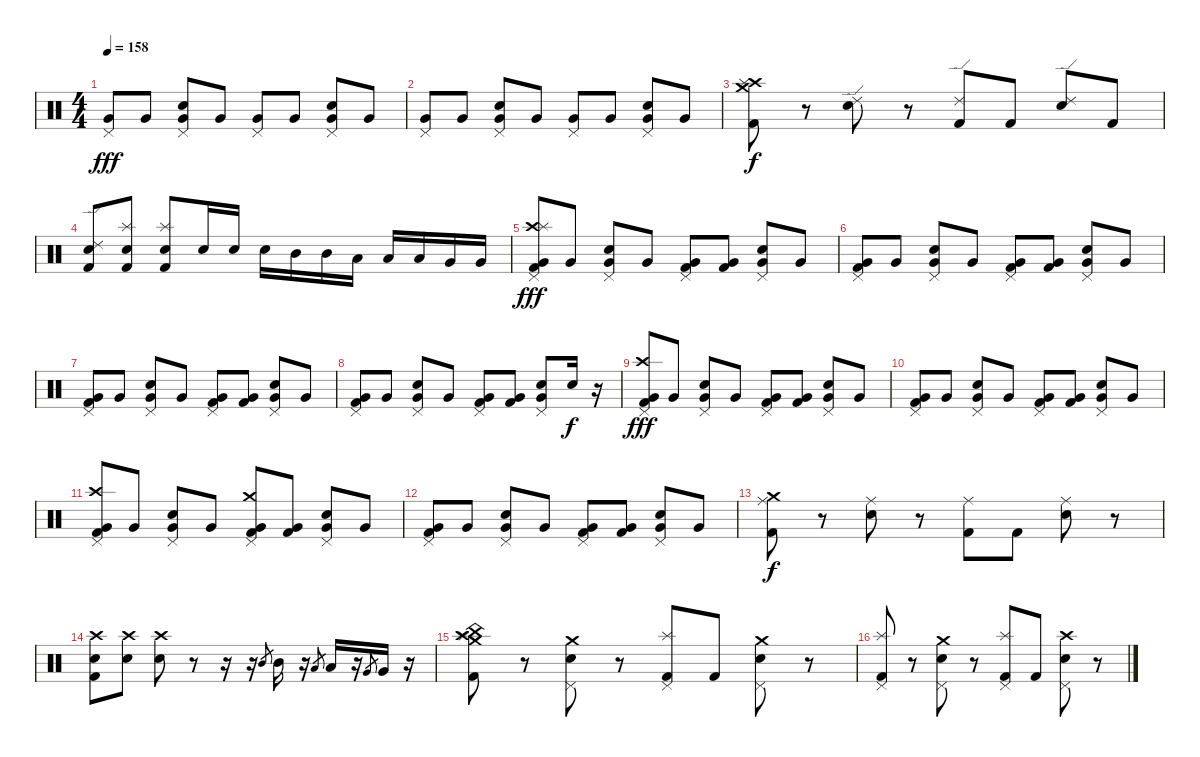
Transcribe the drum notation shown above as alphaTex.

\track "" {instrument percussion}
\staff {score}
\articulation defaults
\ts (4 4)
\tempo 158
\clef neutral
\ks c
("Pedal Hi-Hat (hit)" "Very Low Tom (hit)").8{dy fff} "Very Low Tom (hit)".8 ("Pedal Hi-Hat (hit)" "Electric Snare (hit)" "Very Low Tom (hit)").8 "Very Low Tom (hit)".8 ("Pedal Hi-Hat (hit)" "Very Low Tom (hit)").8 "Very Low Tom (hit)".8 ("Pedal Hi-Hat (hit)" "Electric Snare (hit)" "Very Low Tom (hit)").8 "Very Low Tom (hit)".8 |
("Pedal Hi-Hat (hit)" "Very Low Tom (hit)").8 "Very Low Tom (hit)".8 ("Pedal Hi-Hat (hit)" "Electric Snare (hit)" "Very Low Tom (hit)").8 "Very Low Tom (hit)".8 ("Pedal Hi-Hat (hit)" "Very Low Tom (hit)").8 "Very Low Tom (hit)".8 ("Pedal Hi-Hat (hit)" "Electric Snare (hit)" "Very Low Tom (hit)").8 "Very Low Tom (hit)".8 |
("Crash high (hit)" "Splash (hit)" "Crash medium (hit)" "Kick (hit) 2").8{dy f} r.8 ("Ride (edge) 2" "Electric Snare (hit)").8 r.8 ("Ride (edge) 2" "Kick (hit) 2").8 "Kick (hit) 2".8 ("Ride (edge) 2" "Electric Snare (hit)").8 "Kick (hit) 2".8 |
("Ride (edge) 2" "Electric Snare (hit)" "Kick (hit) 2").8 ("Splash (hit)" "Electric Snare (hit)" "Kick (hit) 2").8 ("Splash (hit)" "Electric Snare (hit)" "Kick (hit) 2").8 "Electric Snare (hit)".16 "Electric Snare (hit)".16 "Electric Snare (hit)".16 "Mid Tom (hit)".16 "Mid Tom (hit)".16 "Low Tom (hit)".16 "Low Tom (hit)".16 "Low Tom (hit)".16 "Very Low Tom (hit)".16 "Very Low Tom (hit)".16 |
("Crash high (hit)" "Pedal Hi-Hat (hit)" "Splash (hit)" "Kick (hit) 2" "Very Low Tom (hit)").8{dy fff} "Very Low Tom (hit)".8 ("Pedal Hi-Hat (hit)" "Electric Snare (hit)" "Very Low Tom (hit)").8 "Very Low Tom (hit)".8 ("Pedal Hi-Hat (hit)" "Kick (hit) 2" "Very Low Tom (hit)").8 ("Kick (hit) 2" "Very Low Tom (hit)").8 ("Pedal Hi-Hat (hit)" "Electric Snare (hit)" "Very Low Tom (hit)").8 "Very Low Tom (hit)".8 |
("Pedal Hi-Hat (hit)" "Kick (hit) 2" "Very Low Tom (hit)").8 "Very Low Tom (hit)".8 ("Pedal Hi-Hat (hit)" "Electric Snare (hit)" "Very Low Tom (hit)").8 "Very Low Tom (hit)".8 ("Pedal Hi-Hat (hit)" "Kick (hit) 2" "Very Low Tom (hit)").8 ("Kick (hit) 2" "Very Low Tom (hit)").8 ("Pedal Hi-Hat (hit)" "Electric Snare (hit)" "Very Low Tom (hit)").8 "Very Low Tom (hit)".8 |
("Pedal Hi-Hat (hit)" "Kick (hit) 2" "Very Low Tom (hit)").8 "Very Low Tom (hit)".8 ("Pedal Hi-Hat (hit)" "Electric Snare (hit)" "Very Low Tom (hit)").8 "Very Low Tom (hit)".8 ("Pedal Hi-Hat (hit)" "Kick (hit) 2" "Very Low Tom (hit)").8 ("Kick (hit) 2" "Very Low Tom (hit)").8 ("Pedal Hi-Hat (hit)" "Electric Snare (hit)" "Very Low Tom (hit)").8 "Very Low Tom (hit)".8 |
("Pedal Hi-Hat (hit)" "Kick (hit) 2" "Very Low Tom (hit)").8 "Very Low Tom (hit)".8 ("Pedal Hi-Hat (hit)" "Electric Snare (hit)" "Very Low Tom (hit)").8 "Very Low Tom (hit)".8 ("Pedal Hi-Hat (hit)" "Kick (hit) 2" "Very Low Tom (hit)").8 ("Kick (hit) 2" "Very Low Tom (hit)").8 ("Pedal Hi-Hat (hit)" "Electric Snare (hit)" "Very Low Tom (hit)").8 "Electric Snare (hit)".16{dy f} r.16 |
("Crash high (hit)" "Pedal Hi-Hat (hit)" "Kick (hit) 2" "Very Low Tom (hit)").8{dy fff} "Very Low Tom (hit)".8 ("Pedal Hi-Hat (hit)" "Electric Snare (hit)" "Very Low Tom (hit)").8 "Very Low Tom (hit)".8 ("Pedal Hi-Hat (hit)" "Kick (hit) 2" "Very Low Tom (hit)").8 ("Kick (hit) 2" "Very Low Tom (hit)").8 ("Pedal Hi-Hat (hit)" "Electric Snare (hit)" "Very Low Tom (hit)").8 "Very Low Tom (hit)".8 |
("Pedal Hi-Hat (hit)" "Kick (hit) 2" "Very Low Tom (hit)").8 "Very Low Tom (hit)".8 ("Pedal Hi-Hat (hit)" "Electric Snare (hit)" "Very Low Tom (hit)").8 "Very Low Tom (hit)".8 ("Pedal Hi-Hat (hit)" "Kick (hit) 2" "Very Low Tom (hit)").8 ("Kick (hit) 2" "Very Low Tom (hit)").8 ("Pedal Hi-Hat (hit)" "Electric Snare (hit)" "Very Low Tom (hit)").8 "Very Low Tom (hit)".8 |
("Crash high (hit)" "Pedal Hi-Hat (hit)" "Kick (hit) 2" "Very Low Tom (hit)").8 "Very Low Tom (hit)".8 ("Pedal Hi-Hat (hit)" "Electric Snare (hit)" "Very Low Tom (hit)").8 "Very Low Tom (hit)".8 ("Crash medium (hit)" "Pedal Hi-Hat (hit)" "Kick (hit) 2" "Very Low Tom (hit)").8 ("Kick (hit) 2" "Very Low Tom (hit)").8 ("Pedal Hi-Hat (hit)" "Electric Snare (hit)" "Very Low Tom (hit)").8 "Very Low Tom (hit)".8 |
("Pedal Hi-Hat (hit)" "Kick (hit) 2" "Very Low Tom (hit)").8 "Very Low Tom (hit)".8 ("Pedal Hi-Hat (hit)" "Electric Snare (hit)" "Very Low Tom (hit)").8 "Very Low Tom (hit)".8 ("Pedal Hi-Hat (hit)" "Kick (hit) 2" "Very Low Tom (hit)").8 ("Kick (hit) 2" "Very Low Tom (hit)").8 ("Pedal Hi-Hat (hit)" "Electric Snare (hit)" "Very Low Tom (hit)").8 "Very Low Tom (hit)".8 |
("Ride (middle)" "Crash medium (hit)" "Kick (hit) 2").8{dy f} r.8 ("Ride (middle)" "Electric Snare (hit)").8 r.8 ("Ride (middle)" "Kick (hit) 2").8 "Kick (hit) 2".8 ("Ride (middle)" "Electric Snare (hit)").8 r.8 |
("Crash high (hit)" "Electric Snare (hit)" "Kick (hit) 2").8 ("Crash high (hit)" "Electric Snare (hit)").8 ("Crash high (hit)" "Electric Snare (hit)").8 r.8 r.16 r.16 "Mid Tom (hit)".8{gr} "Mid Tom (hit)".16 r.16 "Low Tom (hit)".8{gr} "Low Tom (hit)".16 r.16 "Very Low Tom (hit)".8{gr} "Very Low Tom (hit)".16 r.16 |
("Crash high (hit)" "Splash (hit)" "Crash medium (hit)" "China (hit)" "Kick (hit) 2").8 r.8 ("Crash medium (hit)" "Pedal Hi-Hat (hit)" "Electric Snare (hit)").8 r.8 ("Splash (hit)" "Pedal Hi-Hat (hit)" "Kick (hit) 2").8 "Kick (hit) 2".8 ("Crash medium (hit)" "Pedal Hi-Hat (hit)" "Electric Snare (hit)").8 r.8 |
("Splash (hit)" "Pedal Hi-Hat (hit)" "Kick (hit) 2").8 r.8 ("Crash medium (hit)" "Pedal Hi-Hat (hit)" "Electric Snare (hit)").8 r.8 ("Splash (hit)" "Pedal Hi-Hat (hit)" "Kick (hit) 2").8 "Kick (hit) 2".8 ("Crash high (hit)" "Pedal Hi-Hat (hit)" "Electric Snare (hit)").8 r.8
